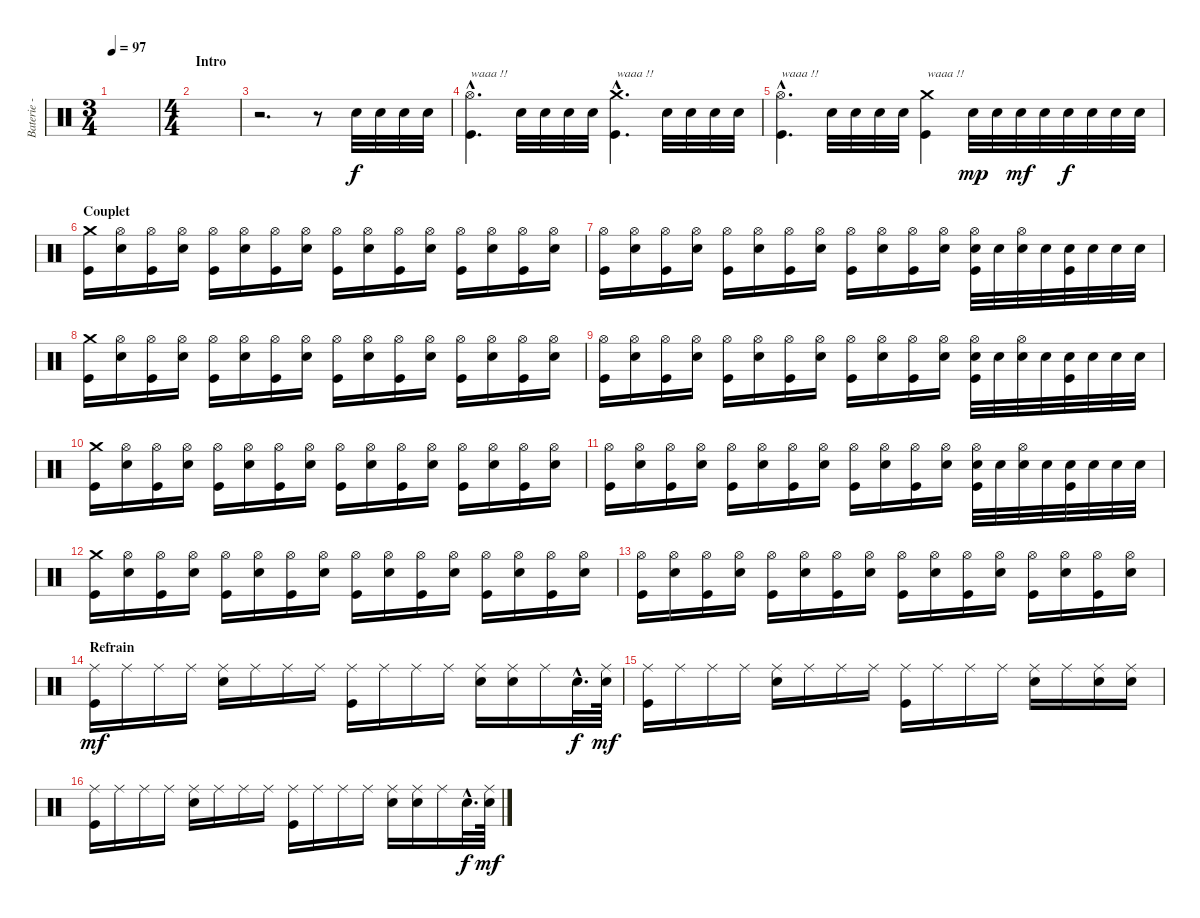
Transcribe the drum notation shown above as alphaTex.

\track ("Baterie - Alex" "Baterie - ") {instrument percussion}
\staff {score}
\articulation defaults
\ts (3 4)
\tempo 97
\clef neutral
\ks c
|
\ts (4 4)
\section ("" "Intro")
|
r.2{d} r.8 "Electric Snare (hit)".32 "Electric Snare (hit)".32 "Electric Snare (hit)".32 "Electric Snare (hit)".32 |
("Hi-Hat (open)"{hac} "Kick (hit)"{hac}).4{d txt "waaa !!"} "Electric Snare (hit)".32 "Electric Snare (hit)".32 "Electric Snare (hit)".32 "Electric Snare (hit)".32 ("Crash medium (hit)"{hac} "Kick (hit)"{hac}).4{d txt "waaa !!"} "Electric Snare (hit)".32 "Electric Snare (hit)".32 "Electric Snare (hit)".32 "Electric Snare (hit)".32 |
("Hi-Hat (open)"{hac} "Kick (hit)"{hac}).4{d txt "waaa !!"} "Electric Snare (hit)".32 "Electric Snare (hit)".32 "Electric Snare (hit)".32 "Electric Snare (hit)".32 ("Crash medium (hit)" "Kick (hit)").4{txt "waaa !!"} "Electric Snare (hit)".32{dy mp} "Electric Snare (hit)".32 "Electric Snare (hit)".32{dy mf} "Electric Snare (hit)".32 "Electric Snare (hit)".32{dy f} "Electric Snare (hit)".32 "Electric Snare (hit)".32 "Electric Snare (hit)".32 |
\section ("" "Couplet")
("Crash medium (hit)" "Kick (hit)").16 ("Hi-Hat (open)" "Electric Snare (hit)").16 ("Hi-Hat (open)" "Kick (hit)").16 ("Hi-Hat (open)" "Electric Snare (hit)").16 ("Hi-Hat (open)" "Kick (hit)").16 ("Hi-Hat (open)" "Electric Snare (hit)").16 ("Hi-Hat (open)" "Kick (hit)").16 ("Hi-Hat (open)" "Electric Snare (hit)").16 ("Hi-Hat (open)" "Kick (hit)").16 ("Hi-Hat (open)" "Electric Snare (hit)").16 ("Hi-Hat (open)" "Kick (hit)").16 ("Hi-Hat (open)" "Electric Snare (hit)").16 ("Hi-Hat (open)" "Kick (hit)").16 ("Hi-Hat (open)" "Electric Snare (hit)").16 ("Hi-Hat (open)" "Kick (hit)").16 ("Hi-Hat (open)" "Electric Snare (hit)").16 |
("Hi-Hat (open)" "Kick (hit)").16 ("Hi-Hat (open)" "Electric Snare (hit)").16 ("Hi-Hat (open)" "Kick (hit)").16 ("Hi-Hat (open)" "Electric Snare (hit)").16 ("Hi-Hat (open)" "Kick (hit)").16 ("Hi-Hat (open)" "Electric Snare (hit)").16 ("Hi-Hat (open)" "Kick (hit)").16 ("Hi-Hat (open)" "Electric Snare (hit)").16 ("Hi-Hat (open)" "Kick (hit)").16 ("Hi-Hat (open)" "Electric Snare (hit)").16 ("Hi-Hat (open)" "Kick (hit)").16 ("Hi-Hat (open)" "Electric Snare (hit)").16 ("Hi-Hat (open)" "Electric Snare (hit)" "Kick (hit)").32 "Electric Snare (hit)".32 ("Hi-Hat (open)" "Electric Snare (hit)").32 "Electric Snare (hit)".32 ("Electric Snare (hit)" "Kick (hit)").32 "Electric Snare (hit)".32 "Electric Snare (hit)".32 "Electric Snare (hit)".32 |
("Crash medium (hit)" "Kick (hit)").16 ("Hi-Hat (open)" "Electric Snare (hit)").16 ("Hi-Hat (open)" "Kick (hit)").16 ("Hi-Hat (open)" "Electric Snare (hit)").16 ("Hi-Hat (open)" "Kick (hit)").16 ("Hi-Hat (open)" "Electric Snare (hit)").16 ("Hi-Hat (open)" "Kick (hit)").16 ("Hi-Hat (open)" "Electric Snare (hit)").16 ("Hi-Hat (open)" "Kick (hit)").16 ("Hi-Hat (open)" "Electric Snare (hit)").16 ("Hi-Hat (open)" "Kick (hit)").16 ("Hi-Hat (open)" "Electric Snare (hit)").16 ("Hi-Hat (open)" "Kick (hit)").16 ("Hi-Hat (open)" "Electric Snare (hit)").16 ("Hi-Hat (open)" "Kick (hit)").16 ("Hi-Hat (open)" "Electric Snare (hit)").16 |
("Hi-Hat (open)" "Kick (hit)").16 ("Hi-Hat (open)" "Electric Snare (hit)").16 ("Hi-Hat (open)" "Kick (hit)").16 ("Hi-Hat (open)" "Electric Snare (hit)").16 ("Hi-Hat (open)" "Kick (hit)").16 ("Hi-Hat (open)" "Electric Snare (hit)").16 ("Hi-Hat (open)" "Kick (hit)").16 ("Hi-Hat (open)" "Electric Snare (hit)").16 ("Hi-Hat (open)" "Kick (hit)").16 ("Hi-Hat (open)" "Electric Snare (hit)").16 ("Hi-Hat (open)" "Kick (hit)").16 ("Hi-Hat (open)" "Electric Snare (hit)").16 ("Hi-Hat (open)" "Electric Snare (hit)" "Kick (hit)").32 "Electric Snare (hit)".32 ("Hi-Hat (open)" "Electric Snare (hit)").32 "Electric Snare (hit)".32 ("Electric Snare (hit)" "Kick (hit)").32 "Electric Snare (hit)".32 "Electric Snare (hit)".32 "Electric Snare (hit)".32 |
("Crash medium (hit)" "Kick (hit)").16 ("Hi-Hat (open)" "Electric Snare (hit)").16 ("Hi-Hat (open)" "Kick (hit)").16 ("Hi-Hat (open)" "Electric Snare (hit)").16 ("Hi-Hat (open)" "Kick (hit)").16 ("Hi-Hat (open)" "Electric Snare (hit)").16 ("Hi-Hat (open)" "Kick (hit)").16 ("Hi-Hat (open)" "Electric Snare (hit)").16 ("Hi-Hat (open)" "Kick (hit)").16 ("Hi-Hat (open)" "Electric Snare (hit)").16 ("Hi-Hat (open)" "Kick (hit)").16 ("Hi-Hat (open)" "Electric Snare (hit)").16 ("Hi-Hat (open)" "Kick (hit)").16 ("Hi-Hat (open)" "Electric Snare (hit)").16 ("Hi-Hat (open)" "Kick (hit)").16 ("Hi-Hat (open)" "Electric Snare (hit)").16 |
("Hi-Hat (open)" "Kick (hit)").16 ("Hi-Hat (open)" "Electric Snare (hit)").16 ("Hi-Hat (open)" "Kick (hit)").16 ("Hi-Hat (open)" "Electric Snare (hit)").16 ("Hi-Hat (open)" "Kick (hit)").16 ("Hi-Hat (open)" "Electric Snare (hit)").16 ("Hi-Hat (open)" "Kick (hit)").16 ("Hi-Hat (open)" "Electric Snare (hit)").16 ("Hi-Hat (open)" "Kick (hit)").16 ("Hi-Hat (open)" "Electric Snare (hit)").16 ("Hi-Hat (open)" "Kick (hit)").16 ("Hi-Hat (open)" "Electric Snare (hit)").16 ("Hi-Hat (open)" "Electric Snare (hit)" "Kick (hit)").32 "Electric Snare (hit)".32 ("Hi-Hat (open)" "Electric Snare (hit)").32 "Electric Snare (hit)".32 ("Electric Snare (hit)" "Kick (hit)").32 "Electric Snare (hit)".32 "Electric Snare (hit)".32 "Electric Snare (hit)".32 |
("Crash medium (hit)" "Kick (hit)").16 ("Hi-Hat (open)" "Electric Snare (hit)").16 ("Hi-Hat (open)" "Kick (hit)").16 ("Hi-Hat (open)" "Electric Snare (hit)").16 ("Hi-Hat (open)" "Kick (hit)").16 ("Hi-Hat (open)" "Electric Snare (hit)").16 ("Hi-Hat (open)" "Kick (hit)").16 ("Hi-Hat (open)" "Electric Snare (hit)").16 ("Hi-Hat (open)" "Kick (hit)").16 ("Hi-Hat (open)" "Electric Snare (hit)").16 ("Hi-Hat (open)" "Kick (hit)").16 ("Hi-Hat (open)" "Electric Snare (hit)").16 ("Hi-Hat (open)" "Kick (hit)").16 ("Hi-Hat (open)" "Electric Snare (hit)").16 ("Hi-Hat (open)" "Kick (hit)").16 ("Hi-Hat (open)" "Electric Snare (hit)").16 |
("Hi-Hat (open)" "Kick (hit)").16 ("Hi-Hat (open)" "Electric Snare (hit)").16 ("Hi-Hat (open)" "Kick (hit)").16 ("Hi-Hat (open)" "Electric Snare (hit)").16 ("Hi-Hat (open)" "Kick (hit)").16 ("Hi-Hat (open)" "Electric Snare (hit)").16 ("Hi-Hat (open)" "Kick (hit)").16 ("Hi-Hat (open)" "Electric Snare (hit)").16 ("Hi-Hat (open)" "Kick (hit)").16 ("Hi-Hat (open)" "Electric Snare (hit)").16 ("Hi-Hat (open)" "Kick (hit)").16 ("Hi-Hat (open)" "Electric Snare (hit)").16 ("Hi-Hat (open)" "Kick (hit)").16 ("Hi-Hat (open)" "Electric Snare (hit)").16 ("Hi-Hat (open)" "Kick (hit)").16 ("Hi-Hat (open)" "Electric Snare (hit)").16 |
\section ("" "Refrain")
("Ride (middle)" "Kick (hit)").16{dy mf} "Ride (middle)".16 "Ride (middle)".16 "Ride (middle)".16 ("Ride (middle)" "Electric Snare (hit)").16 "Ride (middle)".16 "Ride (middle)".16 "Ride (middle)".16 ("Ride (middle)" "Kick (hit)").16 "Ride (middle)".16 "Ride (middle)".16 "Ride (middle)".16 ("Ride (middle)" "Electric Snare (hit)").16 ("Ride (middle)" "Electric Snare (hit)").16 "Ride (middle)".16 "Electric Snare (hit)"{hac}.32{d dy f} ("Ride (middle)" "Electric Snare (hit)").64{dy mf} |
("Ride (middle)" "Kick (hit)").16 "Ride (middle)".16 "Ride (middle)".16 "Ride (middle)".16 ("Ride (middle)" "Electric Snare (hit)").16 "Ride (middle)".16 "Ride (middle)".16 "Ride (middle)".16 ("Ride (middle)" "Kick (hit)").16 "Ride (middle)".16 "Ride (middle)".16 "Ride (middle)".16 ("Ride (middle)" "Electric Snare (hit)").16 "Ride (middle)".16 ("Ride (middle)" "Electric Snare (hit)").16 ("Ride (middle)" "Electric Snare (hit)").16 |
("Ride (middle)" "Kick (hit)").16 "Ride (middle)".16 "Ride (middle)".16 "Ride (middle)".16 ("Ride (middle)" "Electric Snare (hit)").16 "Ride (middle)".16 "Ride (middle)".16 "Ride (middle)".16 ("Ride (middle)" "Kick (hit)").16 "Ride (middle)".16 "Ride (middle)".16 "Ride (middle)".16 ("Ride (middle)" "Electric Snare (hit)").16 ("Ride (middle)" "Electric Snare (hit)").16 "Ride (middle)".16 "Electric Snare (hit)"{hac}.32{d dy f} ("Ride (middle)" "Electric Snare (hit)").64{dy mf}
